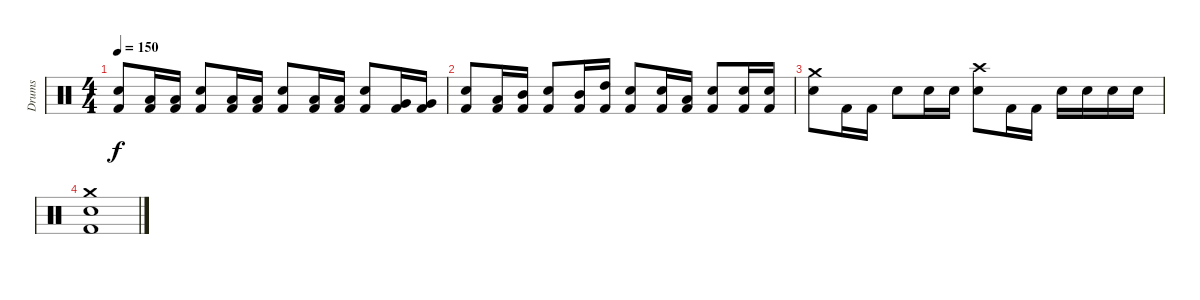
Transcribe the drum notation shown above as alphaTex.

\track ("Drums" "Drums") {instrument percussion}
\staff {score}
\articulation defaults
\ts (4 4)
\tempo 150
\clef neutral
\ks c
("Kick (hit) 2" "Snare (hit) 2").8{dy f} ("Kick (hit) 2" "Low Tom (hit)").16 ("Kick (hit) 2" "Low Tom (hit)").16 ("Kick (hit) 2" "Snare (hit) 2").8 ("Kick (hit) 2" "Low Tom (hit)").16 ("Kick (hit) 2" "Low Tom (hit)").16 ("Kick (hit) 2" "Snare (hit) 2").8 ("Kick (hit) 2" "Low Tom (hit)").16 ("Kick (hit) 2" "Low Tom (hit)").16 ("Kick (hit) 2" "Snare (hit) 2").8 ("Kick (hit) 2" "Very Low Tom (hit)").16 ("Kick (hit) 2" "Very Low Tom (hit)").16 |
("Kick (hit) 2" "Snare (hit) 2").8 ("Kick (hit) 2" "Low Tom (hit)").16 ("Kick (hit) 2" "Mid Tom (hit)").16 ("Kick (hit) 2" "Snare (hit) 2").8 ("Kick (hit) 2" "Mid Tom (hit)").16 ("Kick (hit) 2" "High Tom (hit)").16 ("Kick (hit) 2" "Snare (hit) 2").8 ("Kick (hit) 2" "Snare (hit) 2").16 ("Kick (hit) 2" "Low Tom (hit)").16 ("Kick (hit) 2" "Snare (hit) 2").8 ("Kick (hit) 2" "Snare (hit) 2").16 ("Kick (hit) 2" "Snare (hit) 2").16 |
("Snare (hit) 2" "Crash medium (hit)").8 "Kick (hit) 2".16 "Kick (hit) 2".16 "Snare (hit) 2".8 "Snare (hit) 2".16 "Snare (hit) 2".16 ("Snare (hit) 2" "Crash high (hit)").8 "Kick (hit) 2".16 "Kick (hit) 2".16 "Snare (hit) 2".16 "Snare (hit) 2".16 "Snare (hit) 2".16 "Snare (hit) 2".16 |
("Kick (hit) 2" "Snare (hit) 2" "Crash medium (hit)").1
